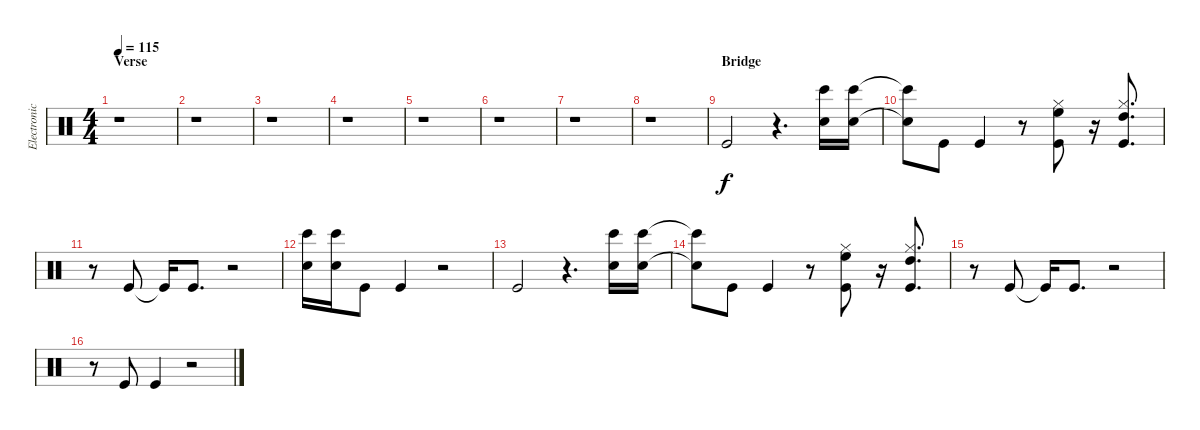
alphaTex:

\track ("Electronic Drums" "Electronic") {instrument percussion}
\staff {score}
\articulation defaults
\ts (4 4)
\section ("" "Verse")
\tempo 115
\clef neutral
\ks c
r.1{dy f} |
r.1 |
r.1 |
r.1 |
r.1 |
r.1 |
r.1 |
r.1 |
\section ("" "Bridge")
"Kick (hit)".2 r.4{d} ("Bongo High (hit)" "Electric Snare (hit)").16 ("Bongo High (hit)" "Electric Snare (hit)").16 |
("Bongo High (hit)"{t} "Electric Snare (hit)"{t}).8 "Kick (hit)".8 "Kick (hit)".4 r.8 ("High Floor Tom (hit)" "Hi-Hat (closed)" "Kick (hit)").8 r.16 ("High Tom (hit)" "Hi-Hat (closed)" "Kick (hit)").8{d} |
r.8 "Kick (hit)".8 "Kick (hit)"{t}.16 "Kick (hit)".8{d} r.2 |
("Bongo High (hit)" "Electric Snare (hit)").16 ("Bongo High (hit)" "Electric Snare (hit)").16 "Kick (hit)".8 "Kick (hit)".4 r.2 |
"Kick (hit)".2 r.4{d} ("Bongo High (hit)" "Electric Snare (hit)").16 ("Bongo High (hit)" "Electric Snare (hit)").16 |
("Bongo High (hit)"{t} "Electric Snare (hit)"{t}).8 "Kick (hit)".8 "Kick (hit)".4 r.8 ("High Floor Tom (hit)" "Hi-Hat (closed)" "Kick (hit)").8 r.16 ("High Tom (hit)" "Hi-Hat (closed)" "Kick (hit)").8{d} |
r.8 "Kick (hit)".8 "Kick (hit)"{t}.16 "Kick (hit)".8{d} r.2 |
r.8 "Kick (hit)".8 "Kick (hit)".4 r.2
